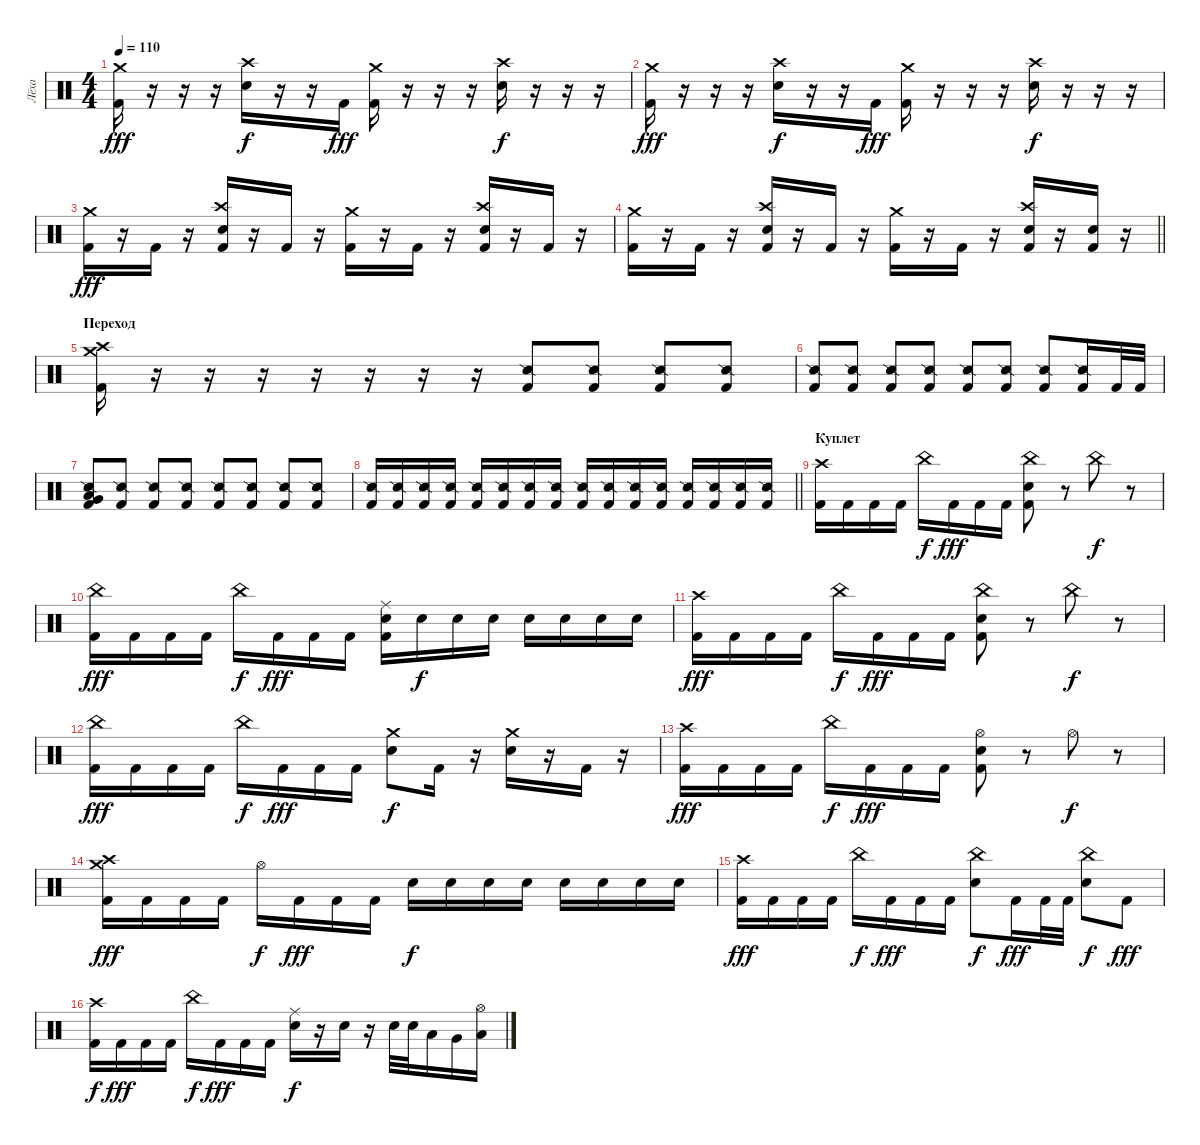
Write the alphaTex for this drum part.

\track ("Лёха" "Лёха") {instrument percussion}
\staff {score}
\articulation defaults
\ts (4 4)
\tempo 110
\clef neutral
\ks c
("Crash medium (hit)" "Kick (hit) 2").16{dy fff} r.16 r.16 r.16 ("Crash high (hit)" "Electric Snare (hit)").16{dy f} r.16 r.16 "Kick (hit) 2".16{dy fff} ("Crash medium (hit)" "Kick (hit) 2").16 r.16 r.16 r.16 ("Crash high (hit)" "Electric Snare (hit)").16{dy f} r.16 r.16 r.16 |
("Crash medium (hit)" "Kick (hit) 2").16{dy fff} r.16 r.16 r.16 ("Crash high (hit)" "Electric Snare (hit)").16{dy f} r.16 r.16 "Kick (hit) 2".16{dy fff} ("Crash medium (hit)" "Kick (hit) 2").16 r.16 r.16 r.16 ("Crash high (hit)" "Electric Snare (hit)").16{dy f} r.16 r.16 r.16 |
("Crash medium (hit)" "Kick (hit) 2").16{dy fff} r.16 "Kick (hit) 2".16 r.16 ("Crash high (hit)" "Electric Snare (hit)" "Kick (hit) 2").16 r.16 "Kick (hit) 2".16 r.16 ("Crash medium (hit)" "Kick (hit) 2").16 r.16 "Kick (hit) 2".16 r.16 ("Crash high (hit)" "Electric Snare (hit)" "Kick (hit) 2").16 r.16 "Kick (hit) 2".16 r.16 |
\barLineRight lightlight
("Crash medium (hit)" "Kick (hit) 2").16 r.16 "Kick (hit) 2".16 r.16 ("Crash high (hit)" "Electric Snare (hit)" "Kick (hit) 2").16 r.16 "Kick (hit) 2".16 r.16 ("Crash medium (hit)" "Kick (hit) 2").16 r.16 "Kick (hit) 2".16 r.16 ("Crash high (hit)" "Electric Snare (hit)" "Kick (hit) 2").16 r.16 ("Electric Snare (hit)" "Kick (hit) 2").16 r.16 |
\section ("" "Переход")
("Crash medium (hit)" "Crash high (hit)" "Kick (hit) 2").16 r.16 r.16 r.16 r.16 r.16 r.16 r.16{volume 4} ("Snare (side stick) 2" "Kick (hit) 2").8{volume 16} ("Snare (side stick) 2" "Kick (hit) 2").8 ("Snare (side stick) 2" "Kick (hit) 2").8 ("Snare (side stick) 2" "Kick (hit) 2").8 |
("Snare (side stick) 2" "Kick (hit) 2").8 ("Snare (side stick) 2" "Kick (hit) 2").8 ("Snare (side stick) 2" "Kick (hit) 2").8 ("Snare (side stick) 2" "Kick (hit) 2").8 ("Snare (side stick) 2" "Kick (hit) 2").8 ("Snare (side stick) 2" "Kick (hit) 2").8 ("Snare (side stick) 2" "Kick (hit) 2").8 ("Snare (side stick) 2" "Kick (hit) 2").16 "Kick (hit) 2".32 "Kick (hit) 2".32 |
("Snare (side stick) 2" "Low Floor Tom (hit)" "Very Low Tom (hit)" "Kick (hit) 2").8 ("Snare (side stick) 2" "Kick (hit) 2").8 ("Snare (side stick) 2" "Kick (hit) 2").8 ("Snare (side stick) 2" "Kick (hit) 2").8 ("Snare (side stick) 2" "Kick (hit) 2").8 ("Snare (side stick) 2" "Kick (hit) 2").8 ("Snare (side stick) 2" "Kick (hit) 2").8 ("Snare (side stick) 2" "Kick (hit) 2").8 |
\barLineRight lightlight
("Snare (side stick) 2" "Kick (hit) 2").16 ("Snare (side stick) 2" "Kick (hit) 2").16 ("Snare (side stick) 2" "Kick (hit) 2").16 ("Snare (side stick) 2" "Kick (hit) 2").16 ("Snare (side stick) 2" "Kick (hit) 2").16 ("Snare (side stick) 2" "Kick (hit) 2").16 ("Snare (side stick) 2" "Kick (hit) 2").16 ("Snare (side stick) 2" "Kick (hit) 2").16 ("Snare (side stick) 2" "Kick (hit) 2").16 ("Snare (side stick) 2" "Kick (hit) 2").16 ("Snare (side stick) 2" "Kick (hit) 2").16 ("Snare (side stick) 2" "Kick (hit) 2").16 ("Snare (side stick) 2" "Kick (hit) 2").16 ("Snare (side stick) 2" "Kick (hit) 2").16 ("Snare (side stick) 2" "Kick (hit) 2").16 ("Snare (side stick) 2" "Kick (hit) 2").16 |
\section ("" "Куплет")
("Crash high (hit)" "Kick (hit) 2").16 "Kick (hit) 2".16 "Kick (hit) 2".16 "Kick (hit) 2".16 "China (hit)".16{dy f} "Kick (hit) 2".16{dy fff} "Kick (hit) 2".16 "Kick (hit) 2".16 ("China (hit)" "Electric Snare (hit)" "Kick (hit) 2").8 r.8 "China (hit)".8{dy f} r.8 |
("China (hit)" "Kick (hit) 2").16{dy fff} "Kick (hit) 2".16 "Kick (hit) 2".16 "Kick (hit) 2".16 "China (hit)".16{dy f} "Kick (hit) 2".16{dy fff} "Kick (hit) 2".16 "Kick (hit) 2".16 ("Ride (middle)" "Electric Snare (hit)" "Kick (hit) 2").16 "Electric Snare (hit)".16{dy f} "Electric Snare (hit)".16 "Electric Snare (hit)".16 "Electric Snare (hit)".16 "Electric Snare (hit)".16 "Electric Snare (hit)".16 "Electric Snare (hit)".16 |
("Crash high (hit)" "Kick (hit) 2").16{dy fff} "Kick (hit) 2".16 "Kick (hit) 2".16 "Kick (hit) 2".16 "China (hit)".16{dy f} "Kick (hit) 2".16{dy fff} "Kick (hit) 2".16 "Kick (hit) 2".16 ("China (hit)" "Electric Snare (hit)" "Kick (hit) 2").8 r.8 "China (hit)".8{dy f} r.8 |
("China (hit)" "Kick (hit) 2").16{dy fff} "Kick (hit) 2".16 "Kick (hit) 2".16 "Kick (hit) 2".16 "China (hit)".16{dy f} "Kick (hit) 2".16{dy fff} "Kick (hit) 2".16 "Kick (hit) 2".16 ("Crash medium (hit)" "Electric Snare (hit)").8{dy f} "Kick (hit) 2".16 r.16 ("Crash medium (hit)" "Electric Snare (hit)").16 r.16 "Kick (hit) 2".16 r.16 |
("Crash high (hit)" "Kick (hit) 2").16{dy fff} "Kick (hit) 2".16 "Kick (hit) 2".16 "Kick (hit) 2".16 "China (hit)".16{dy f} "Kick (hit) 2".16{dy fff} "Kick (hit) 2".16 "Kick (hit) 2".16 ("Hi-Hat (open)" "Electric Snare (hit)" "Kick (hit) 2").8 r.8 "Hi-Hat (open)".8{dy f} r.8 |
("Crash high (hit)" "Crash medium (hit)" "Kick (hit) 2").16{dy fff} "Kick (hit) 2".16 "Kick (hit) 2".16 "Kick (hit) 2".16 "Hi-Hat (open)".16{dy f} "Kick (hit) 2".16{dy fff} "Kick (hit) 2".16 "Kick (hit) 2".16 "Electric Snare (hit)".16{dy f} "Electric Snare (hit)".16 "Electric Snare (hit)".16 "Electric Snare (hit)".16 "Electric Snare (hit)".16 "Electric Snare (hit)".16 "Electric Snare (hit)".16 "Electric Snare (hit)".16 |
("Crash high (hit)" "Kick (hit) 2").16{dy fff} "Kick (hit) 2".16 "Kick (hit) 2".16 "Kick (hit) 2".16 "China (hit)".16{dy f} "Kick (hit) 2".16{dy fff} "Kick (hit) 2".16 "Kick (hit) 2".16 ("China (hit)" "Electric Snare (hit)").8{dy f} "Kick (hit) 2".16{dy fff} "Kick (hit) 2".32 "Kick (hit) 2".32 ("China (hit)" "Electric Snare (hit)").8{dy f} "Kick (hit) 2".8{dy fff} |
("Crash high (hit)" "Kick (hit) 2").16{dy f} "Kick (hit) 2".16{dy fff} "Kick (hit) 2".16 "Kick (hit) 2".16 "China (hit)".16{dy f} "Kick (hit) 2".16{dy fff} "Kick (hit) 2".16 "Kick (hit) 2".16 ("Ride (middle)" "Electric Snare (hit)").16{dy f} r.16 "Electric Snare (hit)".16 r.16 "Electric Snare (hit)".32 "Electric Snare (hit)".32 "Low Tom (hit)".16 "Very Low Tom (hit)".16 ("Hi-Hat (open)" "Low Floor Tom (hit)").16
